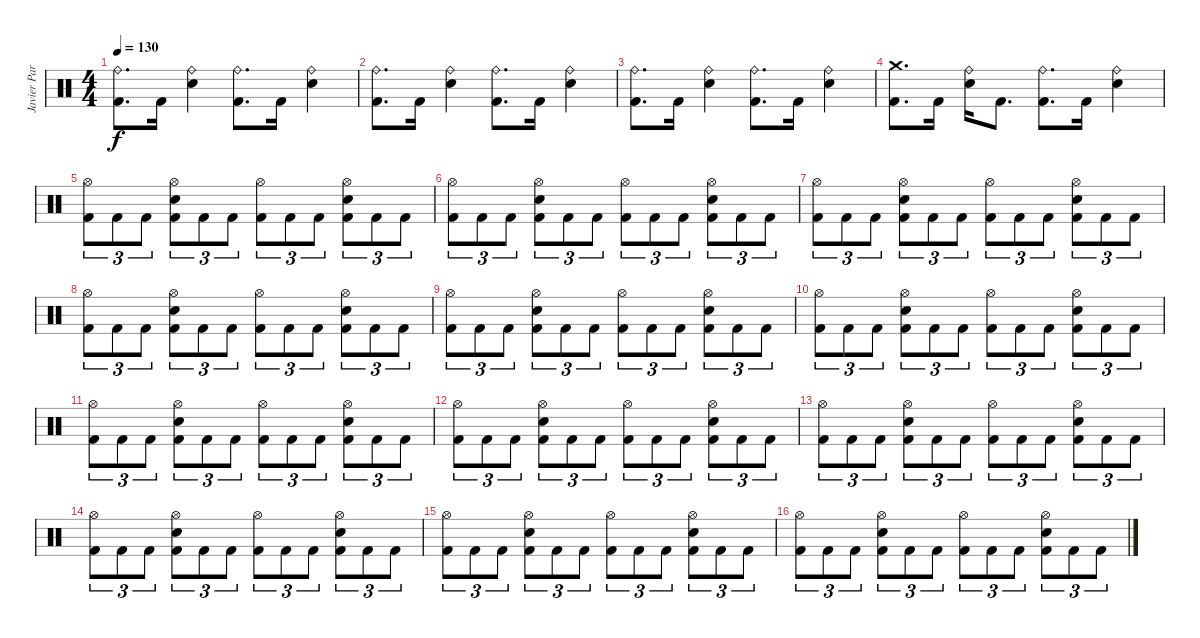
\track ("Javier Partida" "Javier Par") {instrument percussion}
\staff {score}
\articulation defaults
\ts (4 4)
\tempo 130
\clef neutral
\ks c
("Ride (bell)" "Kick (hit) 2").8{d dy f} "Kick (hit) 2".16 ("Ride (bell)" "Electric Snare (hit)").4 ("Ride (bell)" "Kick (hit) 2").8{d} "Kick (hit) 2".16 ("Ride (bell)" "Electric Snare (hit)").4 |
("Ride (bell)" "Kick (hit) 2").8{d} "Kick (hit) 2".16 ("Ride (bell)" "Electric Snare (hit)").4 ("Ride (bell)" "Kick (hit) 2").8{d} "Kick (hit) 2".16 ("Ride (bell)" "Electric Snare (hit)").4 |
("Ride (bell)" "Kick (hit) 2").8{d} "Kick (hit) 2".16 ("Ride (bell)" "Electric Snare (hit)").4 ("Ride (bell)" "Kick (hit) 2").8{d} "Kick (hit) 2".16 ("Ride (bell)" "Electric Snare (hit)").4 |
("Crash medium (hit)" "Kick (hit) 2").8{d} "Kick (hit) 2".16 ("Ride (bell)" "Electric Snare (hit)").16 "Kick (hit) 2".8{d} ("Ride (bell)" "Kick (hit) 2").8{d} "Kick (hit) 2".16 ("Ride (bell)" "Electric Snare (hit)").4 |
("Hi-Hat (open)" "Kick (hit) 2").8{tu (3 2)} "Kick (hit) 2".8{tu (3 2)} "Kick (hit) 2".8{tu (3 2)} ("Hi-Hat (open)" "Electric Snare (hit)" "Kick (hit) 2").8{tu (3 2)} "Kick (hit) 2".8{tu (3 2)} "Kick (hit) 2".8{tu (3 2)} ("Hi-Hat (open)" "Kick (hit) 2").8{tu (3 2)} "Kick (hit) 2".8{tu (3 2)} "Kick (hit) 2".8{tu (3 2)} ("Hi-Hat (open)" "Electric Snare (hit)" "Kick (hit) 2").8{tu (3 2)} "Kick (hit) 2".8{tu (3 2)} "Kick (hit) 2".8{tu (3 2)} |
("Hi-Hat (open)" "Kick (hit) 2").8{tu (3 2)} "Kick (hit) 2".8{tu (3 2)} "Kick (hit) 2".8{tu (3 2)} ("Hi-Hat (open)" "Electric Snare (hit)" "Kick (hit) 2").8{tu (3 2)} "Kick (hit) 2".8{tu (3 2)} "Kick (hit) 2".8{tu (3 2)} ("Hi-Hat (open)" "Kick (hit) 2").8{tu (3 2)} "Kick (hit) 2".8{tu (3 2)} "Kick (hit) 2".8{tu (3 2)} ("Hi-Hat (open)" "Electric Snare (hit)" "Kick (hit) 2").8{tu (3 2)} "Kick (hit) 2".8{tu (3 2)} "Kick (hit) 2".8{tu (3 2)} |
("Hi-Hat (open)" "Kick (hit) 2").8{tu (3 2)} "Kick (hit) 2".8{tu (3 2)} "Kick (hit) 2".8{tu (3 2)} ("Hi-Hat (open)" "Electric Snare (hit)" "Kick (hit) 2").8{tu (3 2)} "Kick (hit) 2".8{tu (3 2)} "Kick (hit) 2".8{tu (3 2)} ("Hi-Hat (open)" "Kick (hit) 2").8{tu (3 2)} "Kick (hit) 2".8{tu (3 2)} "Kick (hit) 2".8{tu (3 2)} ("Hi-Hat (open)" "Electric Snare (hit)" "Kick (hit) 2").8{tu (3 2)} "Kick (hit) 2".8{tu (3 2)} "Kick (hit) 2".8{tu (3 2)} |
("Hi-Hat (open)" "Kick (hit) 2").8{tu (3 2)} "Kick (hit) 2".8{tu (3 2)} "Kick (hit) 2".8{tu (3 2)} ("Hi-Hat (open)" "Electric Snare (hit)" "Kick (hit) 2").8{tu (3 2)} "Kick (hit) 2".8{tu (3 2)} "Kick (hit) 2".8{tu (3 2)} ("Hi-Hat (open)" "Kick (hit) 2").8{tu (3 2)} "Kick (hit) 2".8{tu (3 2)} "Kick (hit) 2".8{tu (3 2)} ("Hi-Hat (open)" "Electric Snare (hit)" "Kick (hit) 2").8{tu (3 2)} "Kick (hit) 2".8{tu (3 2)} "Kick (hit) 2".8{tu (3 2)} |
("Hi-Hat (open)" "Kick (hit) 2").8{tu (3 2)} "Kick (hit) 2".8{tu (3 2)} "Kick (hit) 2".8{tu (3 2)} ("Hi-Hat (open)" "Electric Snare (hit)" "Kick (hit) 2").8{tu (3 2)} "Kick (hit) 2".8{tu (3 2)} "Kick (hit) 2".8{tu (3 2)} ("Hi-Hat (open)" "Kick (hit) 2").8{tu (3 2)} "Kick (hit) 2".8{tu (3 2)} "Kick (hit) 2".8{tu (3 2)} ("Hi-Hat (open)" "Electric Snare (hit)" "Kick (hit) 2").8{tu (3 2)} "Kick (hit) 2".8{tu (3 2)} "Kick (hit) 2".8{tu (3 2)} |
("Hi-Hat (open)" "Kick (hit) 2").8{tu (3 2)} "Kick (hit) 2".8{tu (3 2)} "Kick (hit) 2".8{tu (3 2)} ("Hi-Hat (open)" "Electric Snare (hit)" "Kick (hit) 2").8{tu (3 2)} "Kick (hit) 2".8{tu (3 2)} "Kick (hit) 2".8{tu (3 2)} ("Hi-Hat (open)" "Kick (hit) 2").8{tu (3 2)} "Kick (hit) 2".8{tu (3 2)} "Kick (hit) 2".8{tu (3 2)} ("Hi-Hat (open)" "Electric Snare (hit)" "Kick (hit) 2").8{tu (3 2)} "Kick (hit) 2".8{tu (3 2)} "Kick (hit) 2".8{tu (3 2)} |
("Hi-Hat (open)" "Kick (hit) 2").8{tu (3 2)} "Kick (hit) 2".8{tu (3 2)} "Kick (hit) 2".8{tu (3 2)} ("Hi-Hat (open)" "Electric Snare (hit)" "Kick (hit) 2").8{tu (3 2)} "Kick (hit) 2".8{tu (3 2)} "Kick (hit) 2".8{tu (3 2)} ("Hi-Hat (open)" "Kick (hit) 2").8{tu (3 2)} "Kick (hit) 2".8{tu (3 2)} "Kick (hit) 2".8{tu (3 2)} ("Hi-Hat (open)" "Electric Snare (hit)" "Kick (hit) 2").8{tu (3 2)} "Kick (hit) 2".8{tu (3 2)} "Kick (hit) 2".8{tu (3 2)} |
("Hi-Hat (open)" "Kick (hit) 2").8{tu (3 2)} "Kick (hit) 2".8{tu (3 2)} "Kick (hit) 2".8{tu (3 2)} ("Hi-Hat (open)" "Electric Snare (hit)" "Kick (hit) 2").8{tu (3 2)} "Kick (hit) 2".8{tu (3 2)} "Kick (hit) 2".8{tu (3 2)} ("Hi-Hat (open)" "Kick (hit) 2").8{tu (3 2)} "Kick (hit) 2".8{tu (3 2)} "Kick (hit) 2".8{tu (3 2)} ("Hi-Hat (open)" "Electric Snare (hit)" "Kick (hit) 2").8{tu (3 2)} "Kick (hit) 2".8{tu (3 2)} "Kick (hit) 2".8{tu (3 2)} |
("Hi-Hat (open)" "Kick (hit) 2").8{tu (3 2)} "Kick (hit) 2".8{tu (3 2)} "Kick (hit) 2".8{tu (3 2)} ("Hi-Hat (open)" "Electric Snare (hit)" "Kick (hit) 2").8{tu (3 2)} "Kick (hit) 2".8{tu (3 2)} "Kick (hit) 2".8{tu (3 2)} ("Hi-Hat (open)" "Kick (hit) 2").8{tu (3 2)} "Kick (hit) 2".8{tu (3 2)} "Kick (hit) 2".8{tu (3 2)} ("Hi-Hat (open)" "Electric Snare (hit)" "Kick (hit) 2").8{tu (3 2)} "Kick (hit) 2".8{tu (3 2)} "Kick (hit) 2".8{tu (3 2)} |
("Hi-Hat (open)" "Kick (hit) 2").8{tu (3 2)} "Kick (hit) 2".8{tu (3 2)} "Kick (hit) 2".8{tu (3 2)} ("Hi-Hat (open)" "Electric Snare (hit)" "Kick (hit) 2").8{tu (3 2)} "Kick (hit) 2".8{tu (3 2)} "Kick (hit) 2".8{tu (3 2)} ("Hi-Hat (open)" "Kick (hit) 2").8{tu (3 2)} "Kick (hit) 2".8{tu (3 2)} "Kick (hit) 2".8{tu (3 2)} ("Hi-Hat (open)" "Electric Snare (hit)" "Kick (hit) 2").8{tu (3 2)} "Kick (hit) 2".8{tu (3 2)} "Kick (hit) 2".8{tu (3 2)} |
("Hi-Hat (open)" "Kick (hit) 2").8{tu (3 2)} "Kick (hit) 2".8{tu (3 2)} "Kick (hit) 2".8{tu (3 2)} ("Hi-Hat (open)" "Electric Snare (hit)" "Kick (hit) 2").8{tu (3 2)} "Kick (hit) 2".8{tu (3 2)} "Kick (hit) 2".8{tu (3 2)} ("Hi-Hat (open)" "Kick (hit) 2").8{tu (3 2)} "Kick (hit) 2".8{tu (3 2)} "Kick (hit) 2".8{tu (3 2)} ("Hi-Hat (open)" "Electric Snare (hit)" "Kick (hit) 2").8{tu (3 2)} "Kick (hit) 2".8{tu (3 2)} "Kick (hit) 2".8{tu (3 2)} |
("Hi-Hat (open)" "Kick (hit) 2").8{tu (3 2)} "Kick (hit) 2".8{tu (3 2)} "Kick (hit) 2".8{tu (3 2)} ("Hi-Hat (open)" "Electric Snare (hit)" "Kick (hit) 2").8{tu (3 2)} "Kick (hit) 2".8{tu (3 2)} "Kick (hit) 2".8{tu (3 2)} ("Hi-Hat (open)" "Kick (hit) 2").8{tu (3 2)} "Kick (hit) 2".8{tu (3 2)} "Kick (hit) 2".8{tu (3 2)} ("Hi-Hat (open)" "Electric Snare (hit)" "Kick (hit) 2").8{tu (3 2)} "Kick (hit) 2".8{tu (3 2)} "Kick (hit) 2".8{tu (3 2)}
